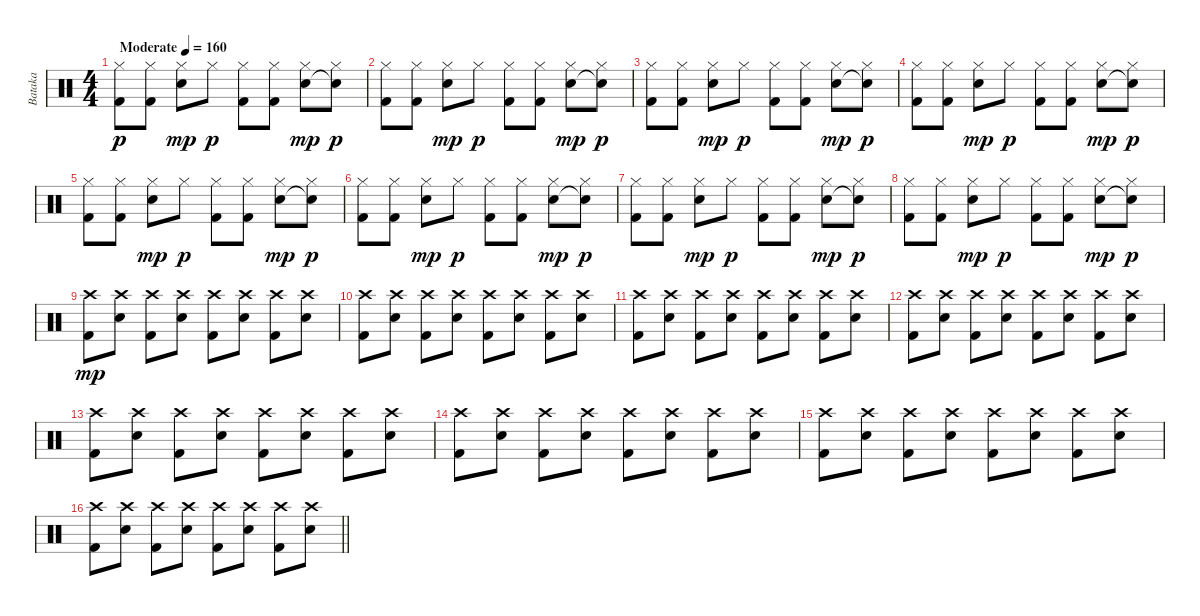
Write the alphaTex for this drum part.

\track ("Bataka" "Bataka") {instrument percussion}
\staff {score}
\articulation defaults
\ts (4 4)
\tempo (160 "Moderate")
\clef neutral
\ks c
("Hi-Hat (closed)" "Kick (hit) 2").8{dy p} ("Hi-Hat (closed)" "Kick (hit) 2").8 ("Hi-Hat (closed)" "Electric Snare (hit)").8{dy mp} "Hi-Hat (closed)".8{dy p} ("Hi-Hat (closed)" "Kick (hit) 2").8 ("Hi-Hat (closed)" "Kick (hit) 2").8 ("Hi-Hat (closed)" "Electric Snare (hit)").8{dy mp} ("Hi-Hat (closed)" "Snare (hit)"{t}).8{dy p} |
("Hi-Hat (closed)" "Kick (hit) 2").8 ("Hi-Hat (closed)" "Kick (hit) 2").8 ("Hi-Hat (closed)" "Electric Snare (hit)").8{dy mp} "Hi-Hat (closed)".8{dy p} ("Hi-Hat (closed)" "Kick (hit) 2").8 ("Hi-Hat (closed)" "Kick (hit) 2").8 ("Hi-Hat (closed)" "Electric Snare (hit)").8{dy mp} ("Hi-Hat (closed)" "Snare (hit)"{t}).8{dy p} |
("Hi-Hat (closed)" "Kick (hit) 2").8 ("Hi-Hat (closed)" "Kick (hit) 2").8 ("Hi-Hat (closed)" "Electric Snare (hit)").8{dy mp} "Hi-Hat (closed)".8{dy p} ("Hi-Hat (closed)" "Kick (hit) 2").8 ("Hi-Hat (closed)" "Kick (hit) 2").8 ("Hi-Hat (closed)" "Electric Snare (hit)").8{dy mp} ("Hi-Hat (closed)" "Snare (hit)"{t}).8{dy p} |
("Hi-Hat (closed)" "Kick (hit) 2").8 ("Hi-Hat (closed)" "Kick (hit) 2").8 ("Hi-Hat (closed)" "Electric Snare (hit)").8{dy mp} "Hi-Hat (closed)".8{dy p} ("Hi-Hat (closed)" "Kick (hit) 2").8 ("Hi-Hat (closed)" "Kick (hit) 2").8 ("Hi-Hat (closed)" "Electric Snare (hit)").8{dy mp} ("Hi-Hat (closed)" "Snare (hit)"{t}).8{dy p} |
("Hi-Hat (closed)" "Kick (hit) 2").8 ("Hi-Hat (closed)" "Kick (hit) 2").8 ("Hi-Hat (closed)" "Electric Snare (hit)").8{dy mp} "Hi-Hat (closed)".8{dy p} ("Hi-Hat (closed)" "Kick (hit) 2").8 ("Hi-Hat (closed)" "Kick (hit) 2").8 ("Hi-Hat (closed)" "Electric Snare (hit)").8{dy mp} ("Hi-Hat (closed)" "Snare (hit)"{t}).8{dy p} |
("Hi-Hat (closed)" "Kick (hit) 2").8 ("Hi-Hat (closed)" "Kick (hit) 2").8 ("Hi-Hat (closed)" "Electric Snare (hit)").8{dy mp} "Hi-Hat (closed)".8{dy p} ("Hi-Hat (closed)" "Kick (hit) 2").8 ("Hi-Hat (closed)" "Kick (hit) 2").8 ("Hi-Hat (closed)" "Electric Snare (hit)").8{dy mp} ("Hi-Hat (closed)" "Snare (hit)"{t}).8{dy p} |
("Hi-Hat (closed)" "Kick (hit) 2").8 ("Hi-Hat (closed)" "Kick (hit) 2").8 ("Hi-Hat (closed)" "Electric Snare (hit)").8{dy mp} "Hi-Hat (closed)".8{dy p} ("Hi-Hat (closed)" "Kick (hit) 2").8 ("Hi-Hat (closed)" "Kick (hit) 2").8 ("Hi-Hat (closed)" "Electric Snare (hit)").8{dy mp} ("Hi-Hat (closed)" "Snare (hit)"{t}).8{dy p} |
("Hi-Hat (closed)" "Kick (hit) 2").8 ("Hi-Hat (closed)" "Kick (hit) 2").8 ("Hi-Hat (closed)" "Electric Snare (hit)").8{dy mp} "Hi-Hat (closed)".8{dy p} ("Hi-Hat (closed)" "Kick (hit) 2").8 ("Hi-Hat (closed)" "Kick (hit) 2").8 ("Hi-Hat (closed)" "Electric Snare (hit)").8{dy mp} ("Hi-Hat (closed)" "Snare (hit)"{t}).8{dy p} |
("Crash high (hit)" "Kick (hit) 2").8{dy mp} ("Crash high (hit)" "Electric Snare (hit)").8 ("Crash high (hit)" "Kick (hit) 2").8 ("Crash high (hit)" "Electric Snare (hit)").8 ("Crash high (hit)" "Kick (hit) 2").8 ("Crash high (hit)" "Electric Snare (hit)").8 ("Crash high (hit)" "Kick (hit) 2").8 ("Crash high (hit)" "Electric Snare (hit)").8 |
("Crash high (hit)" "Kick (hit) 2").8 ("Crash high (hit)" "Electric Snare (hit)").8 ("Crash high (hit)" "Kick (hit) 2").8 ("Crash high (hit)" "Electric Snare (hit)").8 ("Crash high (hit)" "Kick (hit) 2").8 ("Crash high (hit)" "Electric Snare (hit)").8 ("Crash high (hit)" "Kick (hit) 2").8 ("Crash high (hit)" "Electric Snare (hit)").8 |
("Crash high (hit)" "Kick (hit) 2").8 ("Crash high (hit)" "Electric Snare (hit)").8 ("Crash high (hit)" "Kick (hit) 2").8 ("Crash high (hit)" "Electric Snare (hit)").8 ("Crash high (hit)" "Kick (hit) 2").8 ("Crash high (hit)" "Electric Snare (hit)").8 ("Crash high (hit)" "Kick (hit) 2").8 ("Crash high (hit)" "Electric Snare (hit)").8 |
("Crash high (hit)" "Kick (hit) 2").8 ("Crash high (hit)" "Electric Snare (hit)").8 ("Crash high (hit)" "Kick (hit) 2").8 ("Crash high (hit)" "Electric Snare (hit)").8 ("Crash high (hit)" "Kick (hit) 2").8 ("Crash high (hit)" "Electric Snare (hit)").8 ("Crash high (hit)" "Kick (hit) 2").8 ("Crash high (hit)" "Electric Snare (hit)").8 |
("Crash high (hit)" "Kick (hit) 2").8 ("Crash high (hit)" "Electric Snare (hit)").8 ("Crash high (hit)" "Kick (hit) 2").8 ("Crash high (hit)" "Electric Snare (hit)").8 ("Crash high (hit)" "Kick (hit) 2").8 ("Crash high (hit)" "Electric Snare (hit)").8 ("Crash high (hit)" "Kick (hit) 2").8 ("Crash high (hit)" "Electric Snare (hit)").8 |
("Crash high (hit)" "Kick (hit) 2").8 ("Crash high (hit)" "Electric Snare (hit)").8 ("Crash high (hit)" "Kick (hit) 2").8 ("Crash high (hit)" "Electric Snare (hit)").8 ("Crash high (hit)" "Kick (hit) 2").8 ("Crash high (hit)" "Electric Snare (hit)").8 ("Crash high (hit)" "Kick (hit) 2").8 ("Crash high (hit)" "Electric Snare (hit)").8 |
("Crash high (hit)" "Kick (hit) 2").8 ("Crash high (hit)" "Electric Snare (hit)").8 ("Crash high (hit)" "Kick (hit) 2").8 ("Crash high (hit)" "Electric Snare (hit)").8 ("Crash high (hit)" "Kick (hit) 2").8 ("Crash high (hit)" "Electric Snare (hit)").8 ("Crash high (hit)" "Kick (hit) 2").8 ("Crash high (hit)" "Electric Snare (hit)").8 |
\barLineRight lightlight
("Crash high (hit)" "Kick (hit) 2").8 ("Crash high (hit)" "Electric Snare (hit)").8 ("Crash high (hit)" "Kick (hit) 2").8 ("Crash high (hit)" "Electric Snare (hit)").8 ("Crash high (hit)" "Kick (hit) 2").8 ("Crash high (hit)" "Electric Snare (hit)").8 ("Crash high (hit)" "Kick (hit) 2").8 ("Crash high (hit)" "Electric Snare (hit)").8
